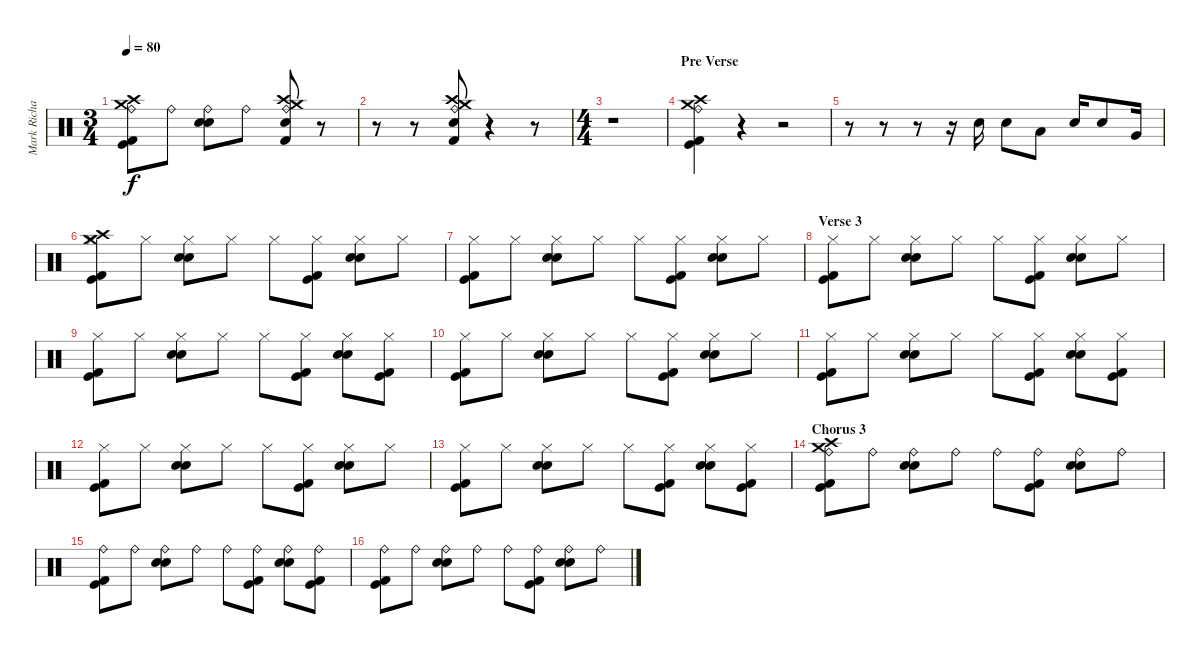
\track ("Mark Richardson (Drums)" "Mark Richa") {instrument percussion}
\staff {score}
\articulation defaults
\ts (3 4)
\tempo 80
\clef neutral
\ks c
("Kick (hit) 2" "Kick (hit)" "Ride (bell)" "Crash high (hit)" "Crash medium (hit)").8{dy f} "Ride (bell)".8 ("Electric Snare (hit)" "Snare (hit) 2" "Ride (bell)").8 "Ride (bell)".8 ("Kick (hit) 2" "Snare (hit) 2" "Ride (bell)" "Crash high (hit)" "Crash medium (hit)").8 r.8 |
r.8 r.8 ("Kick (hit) 2" "Snare (hit) 2" "Ride (bell)" "Crash high (hit)" "Crash medium (hit)").8 r.4 r.8 |
\ts (4 4)
r.1 |
\section ("" "Pre Verse")
("Kick (hit) 2" "Kick (hit)" "Crash high (hit)" "Crash medium (hit)" "Ride (bell)").4 r.4 r.2 |
r.8 r.8 r.8 r.16 "Snare (hit) 2".16 "Snare (hit) 2".8 "Low Tom (hit)".8 "Snare (hit) 2".16 "Snare (hit) 2".8 "Very Low Tom (hit)".16 |
("Kick (hit) 2" "Kick (hit)" "Hi-Hat (closed)" "Crash high (hit)" "Crash medium (hit)").8 "Hi-Hat (closed)".8 ("Electric Snare (hit)" "Snare (hit) 2" "Hi-Hat (closed)").8 "Hi-Hat (closed)".8 "Hi-Hat (closed)".8 ("Kick (hit) 2" "Kick (hit)" "Hi-Hat (closed)").8 ("Electric Snare (hit)" "Snare (hit) 2" "Hi-Hat (closed)").8 "Hi-Hat (closed)".8 |
("Kick (hit) 2" "Kick (hit)" "Hi-Hat (closed)").8 "Hi-Hat (closed)".8 ("Electric Snare (hit)" "Snare (hit) 2" "Hi-Hat (closed)").8 "Hi-Hat (closed)".8 "Hi-Hat (closed)".8 ("Kick (hit) 2" "Kick (hit)" "Hi-Hat (closed)").8 ("Electric Snare (hit)" "Snare (hit) 2" "Hi-Hat (closed)").8 "Hi-Hat (closed)".8 |
\section ("" "Verse 3")
("Kick (hit) 2" "Kick (hit)" "Hi-Hat (closed)").8 "Hi-Hat (closed)".8 ("Electric Snare (hit)" "Snare (hit) 2" "Hi-Hat (closed)").8 "Hi-Hat (closed)".8 "Hi-Hat (closed)".8 ("Kick (hit) 2" "Kick (hit)" "Hi-Hat (closed)").8 ("Electric Snare (hit)" "Snare (hit) 2" "Hi-Hat (closed)").8 "Hi-Hat (closed)".8 |
("Kick (hit) 2" "Kick (hit)" "Hi-Hat (closed)").8 "Hi-Hat (closed)".8 ("Electric Snare (hit)" "Snare (hit) 2" "Hi-Hat (closed)").8 "Hi-Hat (closed)".8 "Hi-Hat (closed)".8 ("Kick (hit) 2" "Kick (hit)" "Hi-Hat (closed)").8 ("Electric Snare (hit)" "Snare (hit) 2" "Hi-Hat (closed)").8 ("Kick (hit) 2" "Kick (hit)" "Hi-Hat (closed)").8 |
("Kick (hit) 2" "Kick (hit)" "Hi-Hat (closed)").8 "Hi-Hat (closed)".8 ("Electric Snare (hit)" "Snare (hit) 2" "Hi-Hat (closed)").8 "Hi-Hat (closed)".8 "Hi-Hat (closed)".8 ("Kick (hit) 2" "Kick (hit)" "Hi-Hat (closed)").8 ("Electric Snare (hit)" "Snare (hit) 2" "Hi-Hat (closed)").8 "Hi-Hat (closed)".8 |
("Kick (hit) 2" "Kick (hit)" "Hi-Hat (closed)").8 "Hi-Hat (closed)".8 ("Electric Snare (hit)" "Snare (hit) 2" "Hi-Hat (closed)").8 "Hi-Hat (closed)".8 "Hi-Hat (closed)".8 ("Kick (hit) 2" "Kick (hit)" "Hi-Hat (closed)").8 ("Electric Snare (hit)" "Snare (hit) 2" "Hi-Hat (closed)").8 ("Kick (hit) 2" "Kick (hit)" "Hi-Hat (closed)").8 |
("Kick (hit) 2" "Kick (hit)" "Hi-Hat (closed)").8 "Hi-Hat (closed)".8 ("Electric Snare (hit)" "Snare (hit) 2" "Hi-Hat (closed)").8 "Hi-Hat (closed)".8 "Hi-Hat (closed)".8 ("Kick (hit) 2" "Kick (hit)" "Hi-Hat (closed)").8 ("Electric Snare (hit)" "Snare (hit) 2" "Hi-Hat (closed)").8 "Hi-Hat (closed)".8 |
("Kick (hit) 2" "Kick (hit)" "Hi-Hat (closed)").8 "Hi-Hat (closed)".8 ("Electric Snare (hit)" "Snare (hit) 2" "Hi-Hat (closed)").8 "Hi-Hat (closed)".8 "Hi-Hat (closed)".8 ("Kick (hit) 2" "Kick (hit)" "Hi-Hat (closed)").8 ("Electric Snare (hit)" "Snare (hit) 2" "Hi-Hat (closed)").8 ("Kick (hit) 2" "Kick (hit)" "Hi-Hat (closed)").8 |
\section ("" "Chorus 3")
("Kick (hit) 2" "Kick (hit)" "Ride (bell)" "Crash high (hit)" "Crash medium (hit)").8 "Ride (bell)".8 ("Electric Snare (hit)" "Snare (hit) 2" "Ride (bell)").8 "Ride (bell)".8 "Ride (bell)".8 ("Kick (hit) 2" "Kick (hit)" "Ride (bell)").8 ("Electric Snare (hit)" "Snare (hit) 2" "Ride (bell)").8 "Ride (bell)".8 |
("Kick (hit) 2" "Kick (hit)" "Ride (bell)").8 "Ride (bell)".8 ("Electric Snare (hit)" "Snare (hit) 2" "Ride (bell)").8 "Ride (bell)".8 "Ride (bell)".8 ("Kick (hit) 2" "Kick (hit)" "Ride (bell)").8 ("Electric Snare (hit)" "Snare (hit) 2" "Ride (bell)").8 ("Kick (hit) 2" "Kick (hit)" "Ride (bell)").8 |
("Kick (hit) 2" "Kick (hit)" "Ride (bell)").8 "Ride (bell)".8 ("Electric Snare (hit)" "Snare (hit) 2" "Ride (bell)").8 "Ride (bell)".8 "Ride (bell)".8 ("Kick (hit) 2" "Kick (hit)" "Ride (bell)").8 ("Electric Snare (hit)" "Snare (hit) 2" "Ride (bell)").8 "Ride (bell)".8
